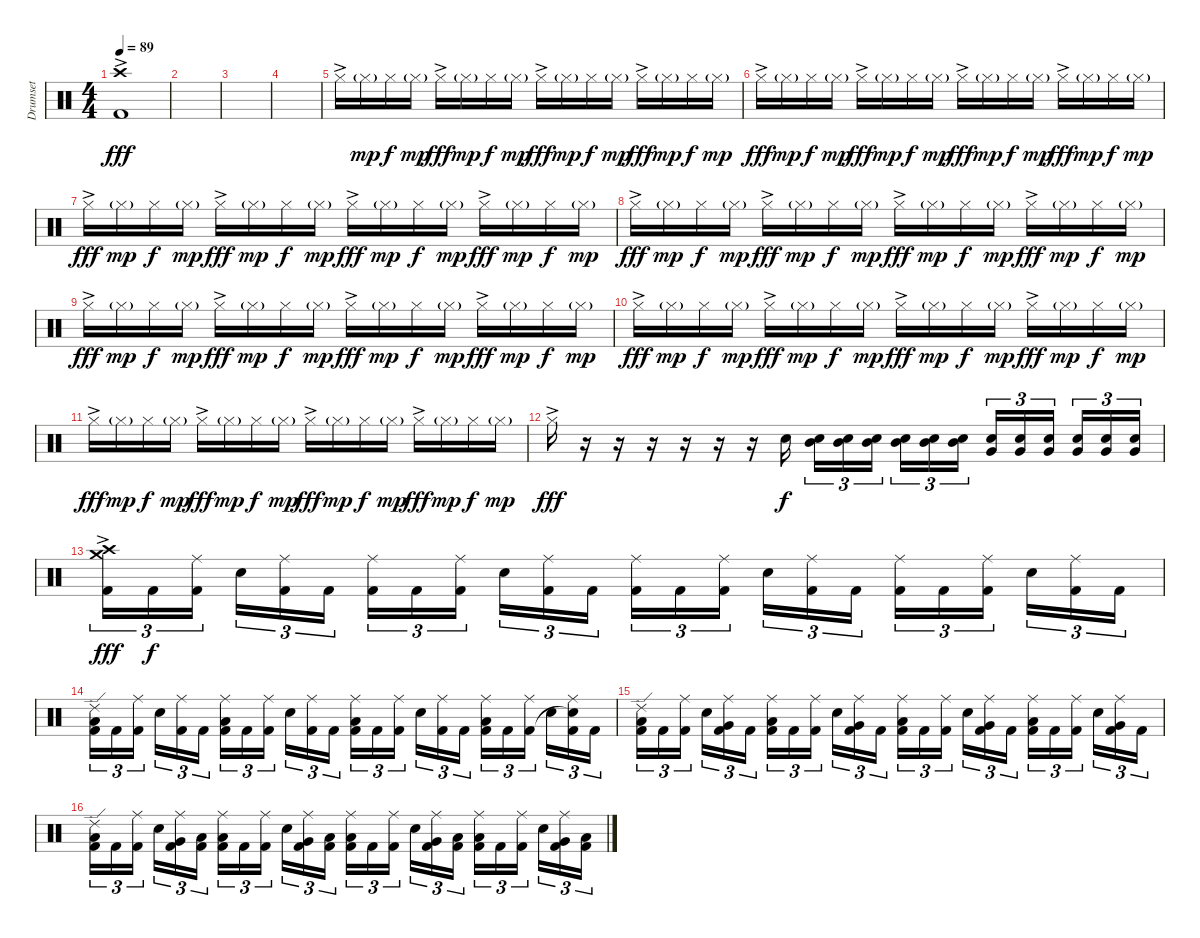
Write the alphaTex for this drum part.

\track ("Drumset" "Drumset") {instrument percussion}
\staff {score}
\articulation defaults
\ts (4 4)
\tempo 89
\clef neutral
\ks c
("Crash high (hit)"{ac} "Kick (hit) 2").1{dy fff} |
|
|
|
"Hi-Hat (closed)"{ac}.16 "Hi-Hat (closed)"{g}.16{dy mp} "Hi-Hat (closed)".16{dy f} "Hi-Hat (closed)"{g}.16{dy mp} "Hi-Hat (closed)"{ac}.16{dy fff} "Hi-Hat (closed)"{g}.16{dy mp} "Hi-Hat (closed)".16{dy f} "Hi-Hat (closed)"{g}.16{dy mp} "Hi-Hat (closed)"{ac}.16{dy fff} "Hi-Hat (closed)"{g}.16{dy mp} "Hi-Hat (closed)".16{dy f} "Hi-Hat (closed)"{g}.16{dy mp} "Hi-Hat (closed)"{ac}.16{dy fff} "Hi-Hat (closed)"{g}.16{dy mp} "Hi-Hat (closed)".16{dy f} "Hi-Hat (closed)"{g}.16{dy mp} |
"Hi-Hat (closed)"{ac}.16{dy fff} "Hi-Hat (closed)"{g}.16{dy mp} "Hi-Hat (closed)".16{dy f} "Hi-Hat (closed)"{g}.16{dy mp} "Hi-Hat (closed)"{ac}.16{dy fff} "Hi-Hat (closed)"{g}.16{dy mp} "Hi-Hat (closed)".16{dy f} "Hi-Hat (closed)"{g}.16{dy mp} "Hi-Hat (closed)"{ac}.16{dy fff} "Hi-Hat (closed)"{g}.16{dy mp} "Hi-Hat (closed)".16{dy f} "Hi-Hat (closed)"{g}.16{dy mp} "Hi-Hat (closed)"{ac}.16{dy fff} "Hi-Hat (closed)"{g}.16{dy mp} "Hi-Hat (closed)".16{dy f} "Hi-Hat (closed)"{g}.16{dy mp} |
"Hi-Hat (closed)"{ac}.16{dy fff} "Hi-Hat (closed)"{g}.16{dy mp} "Hi-Hat (closed)".16{dy f} "Hi-Hat (closed)"{g}.16{dy mp} "Hi-Hat (closed)"{ac}.16{dy fff} "Hi-Hat (closed)"{g}.16{dy mp} "Hi-Hat (closed)".16{dy f} "Hi-Hat (closed)"{g}.16{dy mp} "Hi-Hat (closed)"{ac}.16{dy fff} "Hi-Hat (closed)"{g}.16{dy mp} "Hi-Hat (closed)".16{dy f} "Hi-Hat (closed)"{g}.16{dy mp} "Hi-Hat (closed)"{ac}.16{dy fff} "Hi-Hat (closed)"{g}.16{dy mp} "Hi-Hat (closed)".16{dy f} "Hi-Hat (closed)"{g}.16{dy mp} |
"Hi-Hat (closed)"{ac}.16{dy fff} "Hi-Hat (closed)"{g}.16{dy mp} "Hi-Hat (closed)".16{dy f} "Hi-Hat (closed)"{g}.16{dy mp} "Hi-Hat (closed)"{ac}.16{dy fff} "Hi-Hat (closed)"{g}.16{dy mp} "Hi-Hat (closed)".16{dy f} "Hi-Hat (closed)"{g}.16{dy mp} "Hi-Hat (closed)"{ac}.16{dy fff} "Hi-Hat (closed)"{g}.16{dy mp} "Hi-Hat (closed)".16{dy f} "Hi-Hat (closed)"{g}.16{dy mp} "Hi-Hat (closed)"{ac}.16{dy fff} "Hi-Hat (closed)"{g}.16{dy mp} "Hi-Hat (closed)".16{dy f} "Hi-Hat (closed)"{g}.16{dy mp} |
"Hi-Hat (closed)"{ac}.16{dy fff} "Hi-Hat (closed)"{g}.16{dy mp} "Hi-Hat (closed)".16{dy f} "Hi-Hat (closed)"{g}.16{dy mp} "Hi-Hat (closed)"{ac}.16{dy fff} "Hi-Hat (closed)"{g}.16{dy mp} "Hi-Hat (closed)".16{dy f} "Hi-Hat (closed)"{g}.16{dy mp} "Hi-Hat (closed)"{ac}.16{dy fff} "Hi-Hat (closed)"{g}.16{dy mp} "Hi-Hat (closed)".16{dy f} "Hi-Hat (closed)"{g}.16{dy mp} "Hi-Hat (closed)"{ac}.16{dy fff} "Hi-Hat (closed)"{g}.16{dy mp} "Hi-Hat (closed)".16{dy f} "Hi-Hat (closed)"{g}.16{dy mp} |
"Hi-Hat (closed)"{ac}.16{dy fff} "Hi-Hat (closed)"{g}.16{dy mp} "Hi-Hat (closed)".16{dy f} "Hi-Hat (closed)"{g}.16{dy mp} "Hi-Hat (closed)"{ac}.16{dy fff} "Hi-Hat (closed)"{g}.16{dy mp} "Hi-Hat (closed)".16{dy f} "Hi-Hat (closed)"{g}.16{dy mp} "Hi-Hat (closed)"{ac}.16{dy fff} "Hi-Hat (closed)"{g}.16{dy mp} "Hi-Hat (closed)".16{dy f} "Hi-Hat (closed)"{g}.16{dy mp} "Hi-Hat (closed)"{ac}.16{dy fff} "Hi-Hat (closed)"{g}.16{dy mp} "Hi-Hat (closed)".16{dy f} "Hi-Hat (closed)"{g}.16{dy mp} |
"Hi-Hat (closed)"{ac}.16{dy fff} "Hi-Hat (closed)"{g}.16{dy mp} "Hi-Hat (closed)".16{dy f} "Hi-Hat (closed)"{g}.16{dy mp} "Hi-Hat (closed)"{ac}.16{dy fff} "Hi-Hat (closed)"{g}.16{dy mp} "Hi-Hat (closed)".16{dy f} "Hi-Hat (closed)"{g}.16{dy mp} "Hi-Hat (closed)"{ac}.16{dy fff} "Hi-Hat (closed)"{g}.16{dy mp} "Hi-Hat (closed)".16{dy f} "Hi-Hat (closed)"{g}.16{dy mp} "Hi-Hat (closed)"{ac}.16{dy fff} "Hi-Hat (closed)"{g}.16{dy mp} "Hi-Hat (closed)".16{dy f} "Hi-Hat (closed)"{g}.16{dy mp} |
"Hi-Hat (closed)"{ac}.16{dy fff} r.16 r.16 r.16 r.16 r.16 r.16 "Snare (hit) 2".16{dy f volume 12} ("Electric Snare (hit)" "Mid Tom (hit)").16{tu (3 2)} ("Electric Snare (hit)" "Mid Tom (hit)").16{tu (3 2)} ("Electric Snare (hit)" "Mid Tom (hit)").16{tu (3 2)} ("Electric Snare (hit)" "Mid Tom (hit)").16{tu (3 2)} ("Electric Snare (hit)" "Mid Tom (hit)").16{tu (3 2)} ("Electric Snare (hit)" "Mid Tom (hit)").16{tu (3 2)} ("Electric Snare (hit)" "Very Low Tom (hit)").16{tu (3 2)} ("Electric Snare (hit)" "Very Low Tom (hit)").16{tu (3 2)} ("Electric Snare (hit)" "Very Low Tom (hit)").16{tu (3 2)} ("Electric Snare (hit)" "Very Low Tom (hit)").16{tu (3 2)} ("Electric Snare (hit)" "Very Low Tom (hit)").16{tu (3 2)} ("Electric Snare (hit)" "Very Low Tom (hit)").16{tu (3 2)} |
("Crash high (hit)"{ac} "Crash medium (hit)" "Kick (hit) 2").16{tu (3 2) dy fff} "Kick (hit) 2".16{tu (3 2) dy f} ("Ride (middle)" "Kick (hit) 2").16{tu (3 2)} "Electric Snare (hit)".16{tu (3 2)} ("Ride (middle)" "Kick (hit) 2").16{tu (3 2)} "Kick (hit) 2".16{tu (3 2)} ("Ride (middle)" "Kick (hit) 2").16{tu (3 2)} "Kick (hit) 2".16{tu (3 2)} ("Ride (middle)" "Kick (hit) 2").16{tu (3 2)} "Electric Snare (hit)".16{tu (3 2)} ("Ride (middle)" "Kick (hit) 2").16{tu (3 2)} "Kick (hit) 2".16{tu (3 2)} ("Ride (middle)" "Kick (hit) 2").16{tu (3 2)} "Kick (hit) 2".16{tu (3 2)} ("Ride (middle)" "Kick (hit) 2").16{tu (3 2)} "Electric Snare (hit)".16{tu (3 2)} ("Ride (middle)" "Kick (hit) 2").16{tu (3 2)} "Kick (hit) 2".16{tu (3 2)} ("Ride (middle)" "Kick (hit) 2").16{tu (3 2)} "Kick (hit) 2".16{tu (3 2)} ("Ride (middle)" "Kick (hit) 2").16{tu (3 2)} "Electric Snare (hit)".16{tu (3 2)} ("Ride (middle)" "Kick (hit) 2").16{tu (3 2)} "Kick (hit) 2".16{tu (3 2)} |
("Ride (edge) 2" "Low Floor Tom (hit)" "Kick (hit) 2").16{tu (3 2)} "Kick (hit) 2".16{tu (3 2)} ("Ride (middle)" "Kick (hit) 2").16{tu (3 2)} "Electric Snare (hit)".16{tu (3 2)} ("Ride (middle)" "Kick (hit) 2").16{tu (3 2)} "Kick (hit) 2".16{tu (3 2)} ("Ride (middle)" "Low Floor Tom (hit)" "Kick (hit) 2").16{tu (3 2)} "Kick (hit) 2".16{tu (3 2)} ("Ride (middle)" "Kick (hit) 2").16{tu (3 2)} "Electric Snare (hit)".16{tu (3 2)} ("Ride (middle)" "Kick (hit) 2").16{tu (3 2)} "Kick (hit) 2".16{tu (3 2)} ("Ride (middle)" "Low Floor Tom (hit)" "Kick (hit) 2").16{tu (3 2)} "Kick (hit) 2".16{tu (3 2)} ("Ride (middle)" "Kick (hit) 2").16{tu (3 2)} "Electric Snare (hit)".16{tu (3 2)} ("Ride (middle)" "Kick (hit) 2").16{tu (3 2)} "Kick (hit) 2".16{tu (3 2)} ("Ride (middle)" "Low Floor Tom (hit)" "Kick (hit) 2").16{tu (3 2)} "Kick (hit) 2".16{tu (3 2)} ("Ride (middle)" "Kick (hit) 2").16{tu (3 2)} "Electric Snare (hit)".16{tu (3 2)} ("Ride (middle)" "Snare (hit)"{t} "Kick (hit) 2").16{tu (3 2)} "Kick (hit) 2".16{tu (3 2)} |
("Ride (edge) 2" "Low Floor Tom (hit)" "Kick (hit) 2").16{tu (3 2)} "Kick (hit) 2".16{tu (3 2)} ("Ride (middle)" "Kick (hit) 2").16{tu (3 2)} "Electric Snare (hit)".16{tu (3 2)} ("Ride (middle)" "Very Low Tom (hit)" "Kick (hit) 2").16{tu (3 2)} "Kick (hit) 2".16{tu (3 2)} ("Ride (middle)" "Low Floor Tom (hit)" "Kick (hit) 2").16{tu (3 2)} "Kick (hit) 2".16{tu (3 2)} ("Ride (middle)" "Kick (hit) 2").16{tu (3 2)} "Electric Snare (hit)".16{tu (3 2)} ("Ride (middle)" "Very Low Tom (hit)" "Kick (hit) 2").16{tu (3 2)} "Kick (hit) 2".16{tu (3 2)} ("Ride (middle)" "Low Floor Tom (hit)" "Kick (hit) 2").16{tu (3 2)} "Kick (hit) 2".16{tu (3 2)} ("Ride (middle)" "Kick (hit) 2").16{tu (3 2)} "Electric Snare (hit)".16{tu (3 2)} ("Ride (middle)" "Very Low Tom (hit)" "Kick (hit) 2").16{tu (3 2)} "Kick (hit) 2".16{tu (3 2)} ("Ride (middle)" "Low Floor Tom (hit)" "Kick (hit) 2").16{tu (3 2)} "Kick (hit) 2".16{tu (3 2)} ("Ride (middle)" "Kick (hit) 2").16{tu (3 2)} "Electric Snare (hit)".16{tu (3 2)} ("Ride (middle)" "Very Low Tom (hit)" "Kick (hit) 2").16{tu (3 2)} "Kick (hit) 2".16{tu (3 2)} |
("Ride (edge) 2" "Low Floor Tom (hit)" "Kick (hit) 2").16{tu (3 2)} "Kick (hit) 2".16{tu (3 2)} ("Ride (middle)" "Kick (hit) 2").16{tu (3 2)} "Electric Snare (hit)".16{tu (3 2)} ("Ride (middle)" "Very Low Tom (hit)" "Kick (hit) 2").16{tu (3 2)} ("Low Floor Tom (hit)" "Kick (hit) 2").16{tu (3 2)} ("Ride (middle)" "Low Floor Tom (hit)" "Kick (hit) 2").16{tu (3 2)} "Kick (hit) 2".16{tu (3 2)} ("Ride (middle)" "Kick (hit) 2").16{tu (3 2)} "Electric Snare (hit)".16{tu (3 2)} ("Ride (middle)" "Very Low Tom (hit)" "Kick (hit) 2").16{tu (3 2)} ("Low Floor Tom (hit)" "Kick (hit) 2").16{tu (3 2)} ("Ride (middle)" "Low Floor Tom (hit)" "Kick (hit) 2").16{tu (3 2)} "Kick (hit) 2".16{tu (3 2)} ("Ride (middle)" "Kick (hit) 2").16{tu (3 2)} "Electric Snare (hit)".16{tu (3 2)} ("Ride (middle)" "Very Low Tom (hit)" "Kick (hit) 2").16{tu (3 2)} ("Low Floor Tom (hit)" "Kick (hit) 2").16{tu (3 2)} ("Ride (middle)" "Low Floor Tom (hit)" "Kick (hit) 2").16{tu (3 2)} "Kick (hit) 2".16{tu (3 2)} ("Ride (middle)" "Kick (hit) 2").16{tu (3 2)} "Electric Snare (hit)".16{tu (3 2)} ("Ride (middle)" "Very Low Tom (hit)" "Kick (hit) 2").16{tu (3 2)} ("Low Floor Tom (hit)" "Kick (hit) 2").16{tu (3 2)}
